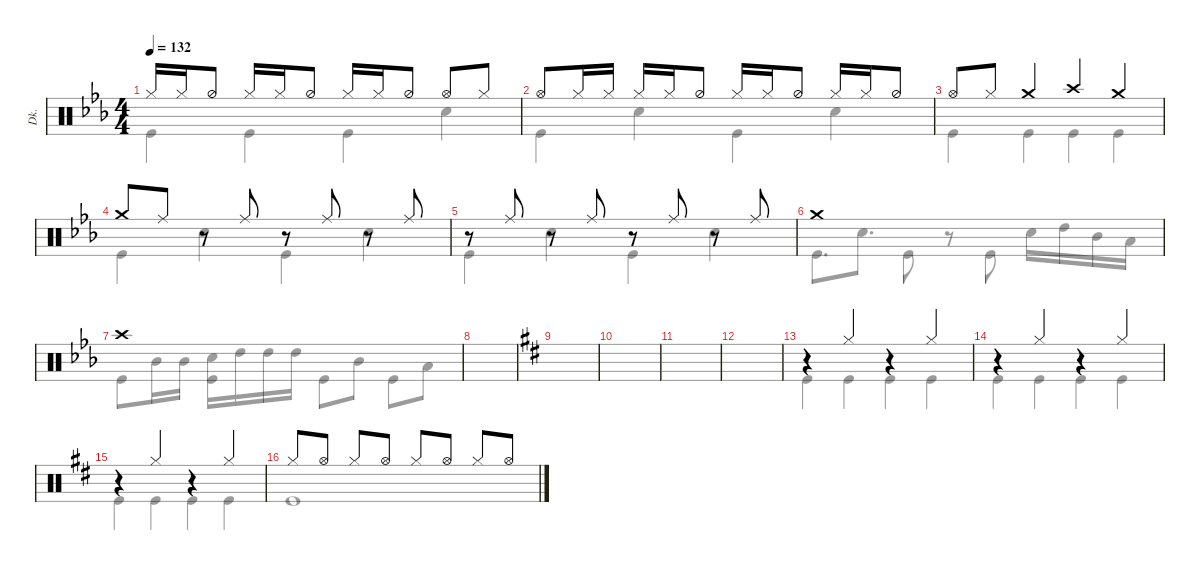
\defaultSystemsLayout 4
\hideDynamics
\bracketExtendMode nobrackets
\otherSystemsTrackNameOrientation horizontal
\track ("Drumkit" "Dk.") {instrument percussion}
\staff {score}
\articulation defaults
\voice
\ts (4 4)
\tempo 132
\clef neutral
\ks eb "Hi-Hat (closed)".16{dy mf} "Hi-Hat (closed)".16 "Hi-Hat (half)".8 "Hi-Hat (closed)".16 "Hi-Hat (closed)".16 "Hi-Hat (half)".8 "Hi-Hat (closed)".16 "Hi-Hat (closed)".16 "Hi-Hat (half)".8 "Hi-Hat (open)".8 "Hi-Hat (closed)".8
|
"Hi-Hat (open)".8 "Hi-Hat (closed)".16 "Hi-Hat (closed)".16 "Hi-Hat (closed)".16 "Hi-Hat (closed)".16 "Hi-Hat (half)".8 "Hi-Hat (closed)".16 "Hi-Hat (closed)".16 "Hi-Hat (half)".8 "Hi-Hat (closed)".16 "Hi-Hat (closed)".16 "Hi-Hat (half)".8 |
"Hi-Hat (open)".8 "Hi-Hat (closed)".8 "Crash medium (hit)".4{dy f} "Crash high (hit)".4 "Crash medium (hit)".4 |
"Crash medium (hit)".8 "Ride (middle)".8 r.8 "Ride (middle)".8 r.8 "Ride (middle)".8 r.8 "Ride (middle)".8 |
r.8 "Ride (middle)".8{dy mf} r.8 "Ride (middle)".8 r.8 "Ride (middle)".8 r.8 "Ride (middle)".8 |
"Crash medium (hit)".1{dy f} |
"Crash high (hit)".1 |
|
\ks d
|
|
|
|
r.4 "Hi-Hat (closed)".4{dy mf} r.4 "Hi-Hat (closed)".4 |
r.4 "Hi-Hat (closed)".4 r.4 "Hi-Hat (closed)".4 |
r.4 "Hi-Hat (closed)".4 r.4 "Hi-Hat (closed)".4 |
"Hi-Hat (closed)".8 "Hi-Hat (open)".8 "Hi-Hat (closed)".8 "Hi-Hat (open)".8 "Hi-Hat (closed)".8 "Hi-Hat (open)".8 "Hi-Hat (closed)".8 "Hi-Hat (open)".8
\voice
\clef neutral
\ottava regular
\simile none
\ks eb "Kick (hit)".4{dy mf} "Kick (hit)".4 "Kick (hit)".4 "Snare (hit) 2".4
|
"Kick (hit)".4 "Snare (hit) 2".4 "Kick (hit)".4 "Snare (hit) 2".4 |
"Kick (hit)".4 "Kick (hit)".4 "Kick (hit)".4 "Kick (hit)".4 |
"Kick (hit)".4{dy f} "Snare (hit) 2".4 "Kick (hit)".4 "Snare (hit) 2".4 |
"Kick (hit)".4 "Snare (hit) 2".4 "Kick (hit)".4 "Snare (hit) 2".4 |
"Kick (hit)".8{d dy mf} "Snare (hit) 2".8{d} "Kick (hit)".8 r.8 "Kick (hit)".8 "Snare (hit) 2".16 "High Tom (hit)".16 "Mid Tom (hit)".16 "Low Tom (hit)".16 |
"Kick (hit)".8{dy f} "Mid Tom (hit)".16 "Mid Tom (hit)".16 ("Kick (hit)" "Snare (hit) 2").16 "High Tom (hit)".16 "High Tom (hit)".16 "High Tom (hit)".16 "Kick (hit)".8 "Mid Tom (hit)".8 "Kick (hit)".8 "Low Tom (hit)".8 |
|
\ks d
|
|
|
|
"Kick (hit)".4{dy mf} "Kick (hit)".4 "Kick (hit)".4 "Kick (hit)".4 |
"Kick (hit)".4 "Kick (hit)".4 "Kick (hit)".4 "Kick (hit)".4 |
"Kick (hit)".4 "Kick (hit)".4 "Kick (hit)".4 "Kick (hit)".4 |
"Kick (hit)".1
